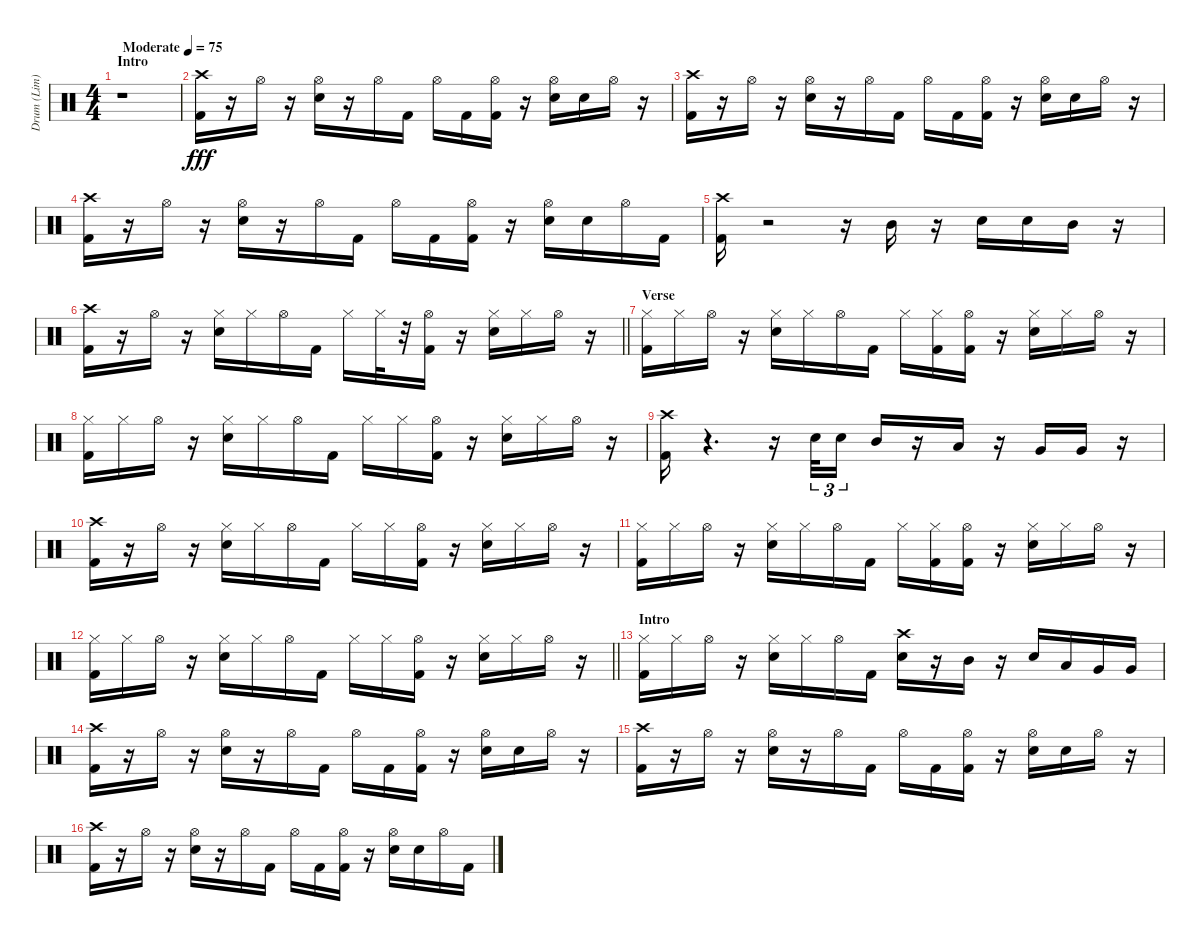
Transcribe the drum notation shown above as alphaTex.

\track ("Drum (Lim)" "Drum (Lim)") {instrument percussion}
\staff {score}
\articulation defaults
\ts (4 4)
\section ("" "Intro")
\tempo (75 "Moderate")
\clef neutral
\ks c
r.1{dy fff} |
("Kick (hit) 2" "Crash high (hit)").16 r.16 "Hi-Hat (open)".16 r.16 ("Electric Snare (hit)" "Hi-Hat (open)").16 r.16 "Hi-Hat (open)".16 "Kick (hit) 2".16 "Hi-Hat (open)".16 "Kick (hit) 2".16 ("Kick (hit) 2" "Hi-Hat (open)").16 r.16 ("Hi-Hat (open)" "Electric Snare (hit)").16 "Electric Snare (hit)".16 "Hi-Hat (open)".16 r.16 |
("Crash high (hit)" "Kick (hit) 2").16 r.16 "Hi-Hat (open)".16 r.16 ("Electric Snare (hit)" "Hi-Hat (open)").16 r.16 "Hi-Hat (open)".16 "Kick (hit) 2".16 "Hi-Hat (open)".16 "Kick (hit) 2".16 ("Hi-Hat (open)" "Kick (hit) 2").16 r.16 ("Electric Snare (hit)" "Hi-Hat (open)").16 "Electric Snare (hit)".16 "Hi-Hat (open)".16 r.16 |
("Crash high (hit)" "Kick (hit) 2").16 r.16 "Hi-Hat (open)".16 r.16 ("Hi-Hat (open)" "Electric Snare (hit)").16 r.16 "Hi-Hat (open)".16 "Kick (hit) 2".16 "Hi-Hat (open)".16 "Kick (hit) 2".16 ("Kick (hit) 2" "Hi-Hat (open)").16 r.16 ("Electric Snare (hit)" "Hi-Hat (open)").16 "Electric Snare (hit)".16 "Hi-Hat (open)".16 "Kick (hit) 2".16 |
("Crash high (hit)" "Kick (hit) 2").16 r.2 r.16 "Mid Tom (hit)".16 r.16 "Electric Snare (hit)".16 "Electric Snare (hit)".16 "Mid Tom (hit)".16 r.16 |
\barLineRight lightlight
("Crash high (hit)" "Kick (hit) 2").16 r.16 "Hi-Hat (open)".16 r.16 ("Electric Snare (hit)" "Hi-Hat (closed)").16 "Hi-Hat (closed)".16 "Hi-Hat (open)".16 "Kick (hit) 2".16 "Hi-Hat (closed)".16 "Hi-Hat (closed)".32 r.32 ("Hi-Hat (open)" "Kick (hit) 2").16 r.16 ("Hi-Hat (closed)" "Electric Snare (hit)").16 "Hi-Hat (closed)".16 "Hi-Hat (open)".16 r.16 |
\section ("" "Verse")
("Hi-Hat (closed)" "Kick (hit) 2").16 "Hi-Hat (closed)".16 "Hi-Hat (open)".16 r.16 ("Electric Snare (hit)" "Hi-Hat (closed)").16 "Hi-Hat (closed)".16 "Hi-Hat (open)".16 "Kick (hit) 2".16 "Hi-Hat (closed)".16 ("Hi-Hat (closed)" "Kick (hit) 2").16 ("Hi-Hat (open)" "Kick (hit) 2").16 r.16 ("Hi-Hat (closed)" "Electric Snare (hit)").16 "Hi-Hat (closed)".16 "Hi-Hat (open)".16 r.16 |
("Kick (hit) 2" "Hi-Hat (closed)").16 "Hi-Hat (closed)".16 "Hi-Hat (open)".16 r.16 ("Electric Snare (hit)" "Hi-Hat (closed)").16 "Hi-Hat (closed)".16 "Hi-Hat (open)".16 "Kick (hit) 2".16 "Hi-Hat (closed)".16 "Hi-Hat (closed)".16 ("Kick (hit) 2" "Hi-Hat (open)").16 r.16 ("Hi-Hat (closed)" "Electric Snare (hit)").16 "Hi-Hat (closed)".16 "Hi-Hat (open)".16 r.16 |
("Kick (hit) 2" "Crash high (hit)").16 r.4{d} r.16 "Electric Snare (hit)".32{tu (3 2)} "Electric Snare (hit)".16{tu (3 2) beam splitsecondary} "Mid Tom (hit)".16 r.16 "Low Tom (hit)".16 r.16 "Very Low Tom (hit)".16 "Very Low Tom (hit)".16 r.16 |
("Kick (hit) 2" "Crash high (hit)").16 r.16 "Hi-Hat (open)".16 r.16 ("Hi-Hat (closed)" "Electric Snare (hit)").16 "Hi-Hat (closed)".16 "Hi-Hat (open)".16 "Kick (hit) 2".16 "Hi-Hat (closed)".16 "Hi-Hat (closed)".16 ("Kick (hit) 2" "Hi-Hat (open)").16 r.16 ("Electric Snare (hit)" "Hi-Hat (closed)").16 "Hi-Hat (closed)".16 "Hi-Hat (open)".16 r.16 |
("Kick (hit) 2" "Hi-Hat (closed)").16 "Hi-Hat (closed)".16 "Hi-Hat (open)".16 r.16 ("Hi-Hat (closed)" "Electric Snare (hit)").16 "Hi-Hat (closed)".16 "Hi-Hat (open)".16 "Kick (hit) 2".16 "Hi-Hat (closed)".16 ("Kick (hit) 2" "Hi-Hat (closed)").16 ("Hi-Hat (open)" "Kick (hit) 2").16 r.16 ("Electric Snare (hit)" "Hi-Hat (closed)").16 "Hi-Hat (closed)".16 "Hi-Hat (open)".16 r.16 |
\barLineRight lightlight
("Hi-Hat (closed)" "Kick (hit) 2").16 "Hi-Hat (closed)".16 "Hi-Hat (open)".16 r.16 ("Hi-Hat (closed)" "Electric Snare (hit)").16 "Hi-Hat (closed)".16 "Hi-Hat (open)".16 "Kick (hit) 2".16 "Hi-Hat (closed)".16 "Hi-Hat (closed)".16 ("Kick (hit) 2" "Hi-Hat (open)").16 r.16 ("Hi-Hat (closed)" "Electric Snare (hit)").16 "Hi-Hat (closed)".16 "Hi-Hat (open)".16 r.16 |
\section ("" "Intro")
("Hi-Hat (closed)" "Kick (hit) 2").16 "Hi-Hat (closed)".16 "Hi-Hat (open)".16 r.16 ("Hi-Hat (closed)" "Electric Snare (hit)").16 "Hi-Hat (closed)".16 "Hi-Hat (open)".16 "Kick (hit) 2".16 ("Crash high (hit)" "Electric Snare (hit)").16 r.16 "Mid Tom (hit)".16 r.16 "Electric Snare (hit)".16 "Low Tom (hit)".16 "Very Low Tom (hit)".16 "Very Low Tom (hit)".16 |
("Kick (hit) 2" "Crash high (hit)").16 r.16 "Hi-Hat (open)".16 r.16 ("Hi-Hat (open)" "Electric Snare (hit)").16 r.16 "Hi-Hat (open)".16 "Kick (hit) 2".16 "Hi-Hat (open)".16 "Kick (hit) 2".16 ("Kick (hit) 2" "Hi-Hat (open)").16 r.16 ("Hi-Hat (open)" "Electric Snare (hit)").16 "Electric Snare (hit)".16 "Hi-Hat (open)".16 r.16 |
("Crash high (hit)" "Kick (hit) 2").16 r.16 "Hi-Hat (open)".16 r.16 ("Electric Snare (hit)" "Hi-Hat (open)").16 r.16 "Hi-Hat (open)".16 "Kick (hit) 2".16 "Hi-Hat (open)".16 "Kick (hit) 2".16 ("Hi-Hat (open)" "Kick (hit) 2").16 r.16 ("Hi-Hat (open)" "Electric Snare (hit)").16 "Electric Snare (hit)".16 "Hi-Hat (open)".16 r.16 |
("Kick (hit) 2" "Crash high (hit)").16 r.16 "Hi-Hat (open)".16 r.16 ("Electric Snare (hit)" "Hi-Hat (open)").16 r.16 "Hi-Hat (open)".16 "Kick (hit) 2".16 "Hi-Hat (open)".16 "Kick (hit) 2".16 ("Hi-Hat (open)" "Kick (hit) 2").16 r.16 ("Electric Snare (hit)" "Hi-Hat (open)").16 "Electric Snare (hit)".16 "Hi-Hat (open)".16 "Kick (hit) 2".16
